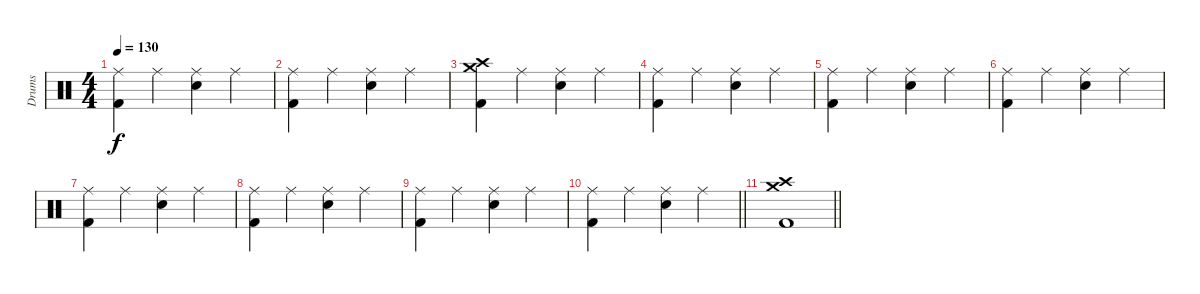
\track ("Drums" "Drums") {instrument percussion}
\staff {score}
\articulation defaults
\ts (4 4)
\tempo 130
\clef neutral
\ks c
("Ride (middle)" "Kick (hit) 2").4{dy f} "Ride (middle)".4 ("Ride (middle)" "Electric Snare (hit)").4 "Ride (middle)".4 |
("Ride (middle)" "Kick (hit) 2").4 "Ride (middle)".4 ("Ride (middle)" "Electric Snare (hit)").4 "Ride (middle)".4 |
("Crash high (hit)" "Crash medium (hit)" "Kick (hit) 2").4 "Ride (middle)".4 ("Ride (middle)" "Electric Snare (hit)").4 "Ride (middle)".4 |
("Ride (middle)" "Kick (hit) 2").4 "Ride (middle)".4 ("Ride (middle)" "Electric Snare (hit)").4 "Ride (middle)".4 |
("Ride (middle)" "Kick (hit) 2").4 "Ride (middle)".4 ("Ride (middle)" "Electric Snare (hit)").4 "Ride (middle)".4 |
("Ride (middle)" "Kick (hit) 2").4 "Ride (middle)".4 ("Ride (middle)" "Electric Snare (hit)").4 "Ride (middle)".4 |
("Ride (middle)" "Kick (hit) 2").4 "Ride (middle)".4 ("Ride (middle)" "Electric Snare (hit)").4 "Ride (middle)".4 |
("Ride (middle)" "Kick (hit) 2").4 "Ride (middle)".4 ("Ride (middle)" "Electric Snare (hit)").4 "Ride (middle)".4 |
("Ride (middle)" "Kick (hit) 2").4 "Ride (middle)".4 ("Ride (middle)" "Electric Snare (hit)").4 "Ride (middle)".4 |
\barLineRight lightlight
("Ride (middle)" "Kick (hit) 2").4 "Ride (middle)".4 ("Ride (middle)" "Electric Snare (hit)").4 "Ride (middle)".4 |
\barLineRight lightlight
("Crash high (hit)" "Crash medium (hit)" "Kick (hit) 2").1
